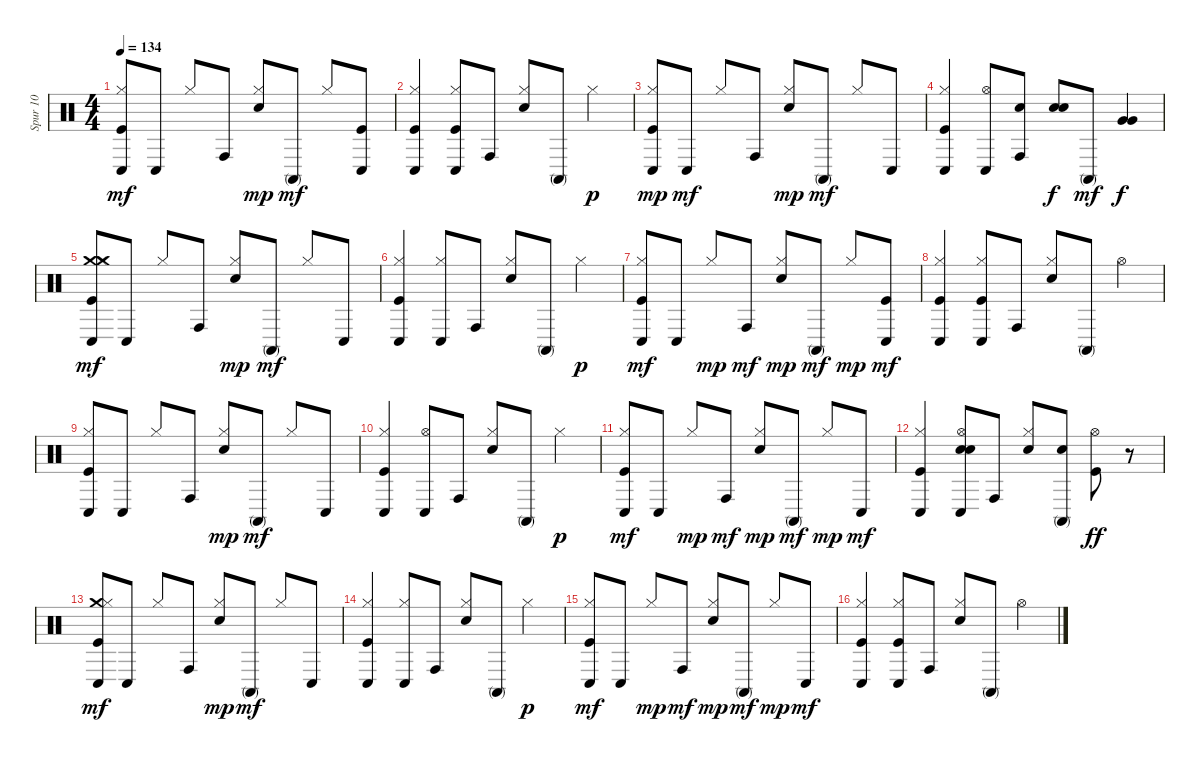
\track ("Spur 10" "Spur 10") {instrument percussion}
\staff {score}
\articulation defaults
\ts (4 4)
\tempo 134
\clef neutral
\ks c
("Kick (hit)" "Hi-Hat (closed)" "Conga low (hit)").8{dy mf} "Conga low (hit)".8 "Hi-Hat (closed)".8 "Conga high (hit)".8 ("Electric Snare (hit)" "Hi-Hat (closed)").8{dy mp} "Conga high (mute)".8{dy mf} "Hi-Hat (closed)".8 ("Conga low (hit)" "Kick (hit)").8 |
("Kick (hit)" "Hi-Hat (closed)" "Conga low (hit)").4 ("Kick (hit)" "Hi-Hat (closed)" "Conga low (hit)").8 "Conga high (hit)".8 ("Electric Snare (hit)" "Hi-Hat (closed)").8 "Conga high (mute)".8 "Hi-Hat (closed)".4{dy p} |
("Conga low (hit)" "Hi-Hat (closed)" "Kick (hit)").8{dy mp} "Conga low (hit)".8{dy mf} "Hi-Hat (closed)".8 "Conga high (hit)".8 ("Electric Snare (hit)" "Hi-Hat (closed)").8{dy mp} "Conga high (mute)".8{dy mf} "Hi-Hat (closed)".8 "Conga low (hit)".8 |
("Conga low (hit)" "Hi-Hat (closed)" "Kick (hit)").4 ("Hi-Hat (open)" "Conga low (hit)").8 ("Electric Snare (hit)" "Conga high (hit)").8 ("Electric Snare (hit)" "Electric Snare (hit)").8{dy f} "Conga high (mute)".8{dy mf} ("Very Low Tom (hit)" "Very Low Tom (hit)").4{dy f} |
("Crash medium (hit)" "Hi-Hat (closed)" "Kick (hit)" "Crash medium (hit)" "Conga low (hit)").8{dy mf} "Conga low (hit)".8 "Hi-Hat (closed)".8 "Conga high (hit)".8 ("Hi-Hat (closed)" "Electric Snare (hit)").8{dy mp} "Conga high (mute)".8{dy mf} "Hi-Hat (closed)".8 "Conga low (hit)".8 |
("Hi-Hat (closed)" "Kick (hit)" "Conga low (hit)").4 ("Hi-Hat (closed)" "Conga low (hit)").8 "Conga high (hit)".8 ("Hi-Hat (closed)" "Electric Snare (hit)").8 "Conga high (mute)".8 "Hi-Hat (closed)".4{dy p} |
("Hi-Hat (closed)" "Kick (hit)" "Conga low (hit)").8{dy mf} "Conga low (hit)".8 "Hi-Hat (closed)".8{dy mp} "Conga high (hit)".8{dy mf} ("Hi-Hat (closed)" "Electric Snare (hit)").8{dy mp} "Conga high (mute)".8{dy mf} "Hi-Hat (closed)".8{dy mp} ("Conga low (hit)" "Kick (hit)").8{dy mf} |
("Hi-Hat (closed)" "Kick (hit)" "Conga low (hit)").4 ("Hi-Hat (closed)" "Kick (hit)" "Conga low (hit)").8 "Conga high (hit)".8 ("Hi-Hat (closed)" "Electric Snare (hit)").8 "Conga high (mute)".8 "Hi-Hat (open)".4 |
("Kick (hit)" "Hi-Hat (closed)" "Conga low (hit)").8 "Conga low (hit)".8 "Hi-Hat (closed)".8 "Conga high (hit)".8 ("Electric Snare (hit)" "Hi-Hat (closed)").8{dy mp} "Conga high (mute)".8{dy mf} "Hi-Hat (closed)".8 "Conga low (hit)".8 |
("Kick (hit)" "Hi-Hat (closed)" "Conga low (hit)").4 ("Hi-Hat (open)" "Conga low (hit)").8 "Conga high (hit)".8 ("Electric Snare (hit)" "Hi-Hat (closed)").8 "Conga high (mute)".8 "Hi-Hat (closed)".4{dy p} |
("Kick (hit)" "Hi-Hat (closed)" "Conga low (hit)").8{dy mf} "Conga low (hit)".8 "Hi-Hat (closed)".8{dy mp} "Conga high (hit)".8{dy mf} ("Electric Snare (hit)" "Hi-Hat (closed)").8{dy mp} "Conga high (mute)".8{dy mf} "Hi-Hat (closed)".8{dy mp} "Conga low (hit)".8{dy mf} |
("Kick (hit)" "Hi-Hat (closed)" "Conga low (hit)").4 ("Conga low (hit)" "Hi-Hat (open)" "Electric Snare (hit)" "Electric Snare (hit)").8 "Conga high (hit)".8 ("Electric Snare (hit)" "Hi-Hat (closed)").8 ("Conga high (mute)" "Electric Snare (hit)").8 ("Kick (hit)" "Hi-Hat (open)").8{dy ff} r.8 |
("Crash medium (hit)" "Hi-Hat (closed)" "Conga low (hit)" "Kick (hit)").8{dy mf} "Conga low (hit)".8 "Hi-Hat (closed)".8 "Conga high (hit)".8 ("Hi-Hat (closed)" "Electric Snare (hit)").8{dy mp} "Conga high (mute)".8{dy mf} "Hi-Hat (closed)".8 "Conga low (hit)".8 |
("Hi-Hat (closed)" "Conga low (hit)" "Kick (hit)").4 ("Hi-Hat (closed)" "Conga low (hit)").8 "Conga high (hit)".8 ("Hi-Hat (closed)" "Electric Snare (hit)").8 "Conga high (mute)".8 "Hi-Hat (closed)".4{dy p} |
("Hi-Hat (closed)" "Kick (hit)" "Conga low (hit)").8{dy mf} "Conga low (hit)".8 "Hi-Hat (closed)".8{dy mp} "Conga high (hit)".8{dy mf} ("Hi-Hat (closed)" "Electric Snare (hit)").8{dy mp} "Conga high (mute)".8{dy mf} "Hi-Hat (closed)".8{dy mp} "Conga low (hit)".8{dy mf} |
("Hi-Hat (closed)" "Conga low (hit)" "Kick (hit)").4 ("Hi-Hat (closed)" "Conga low (hit)" "Kick (hit)").8 "Conga high (hit)".8 ("Hi-Hat (closed)" "Electric Snare (hit)").8 "Conga high (mute)".8 "Hi-Hat (open)".4
